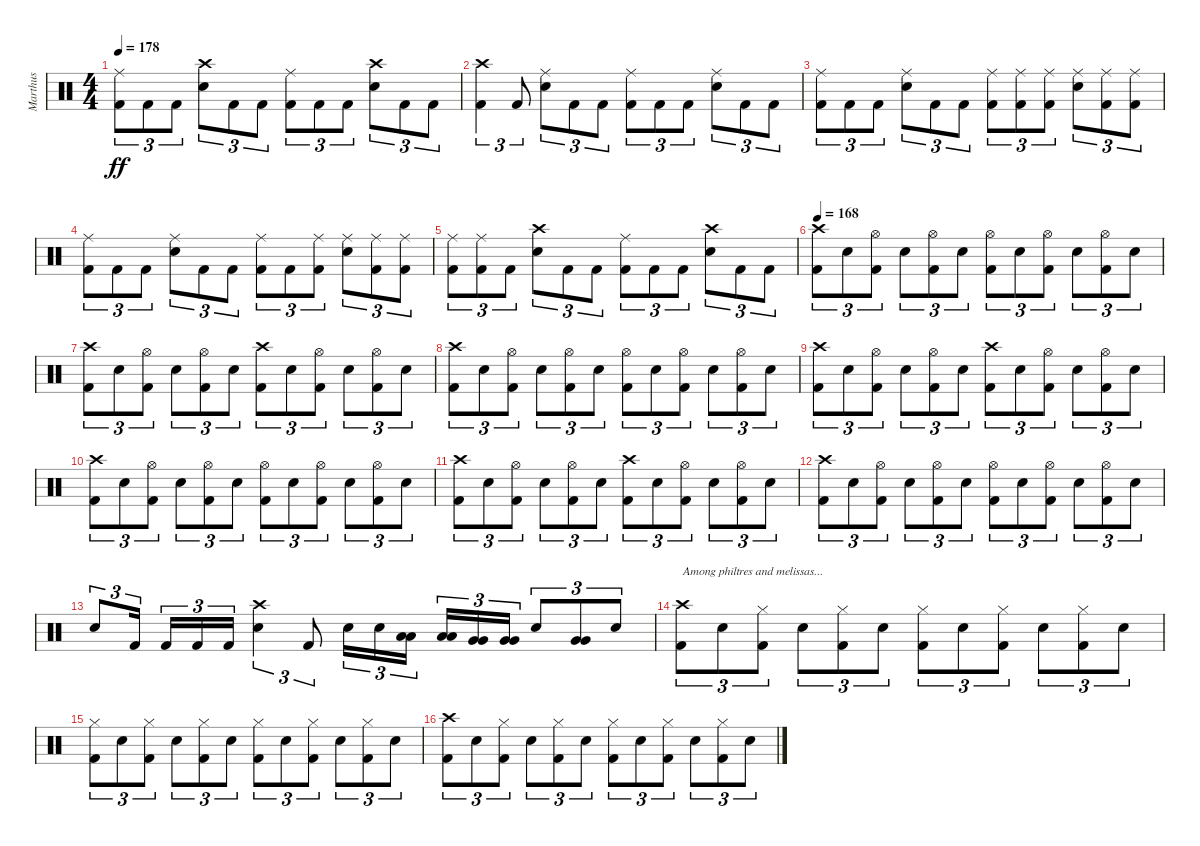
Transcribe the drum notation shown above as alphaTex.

\track ("Marthus" "Marthus") {instrument percussion}
\staff {score}
\articulation defaults
\ts (4 4)
\tempo 178
\clef neutral
\ks c
("Ride (middle)" "Kick (hit) 2").8{tu (3 2) dy ff} "Kick (hit) 2".8{tu (3 2)} "Kick (hit) 2".8{tu (3 2)} ("Crash high (hit)" "Electric Snare (hit)").8{tu (3 2)} "Kick (hit) 2".8{tu (3 2)} "Kick (hit) 2".8{tu (3 2)} ("Ride (middle)" "Kick (hit) 2").8{tu (3 2)} "Kick (hit) 2".8{tu (3 2)} "Kick (hit) 2".8{tu (3 2)} ("Crash high (hit)" "Electric Snare (hit)").8{tu (3 2)} "Kick (hit) 2".8{tu (3 2)} "Kick (hit) 2".8{tu (3 2)} |
("Crash high (hit)" "Kick (hit) 2").4{tu (3 2)} "Kick (hit) 2".8{tu (3 2)} ("Ride (middle)" "Electric Snare (hit)").8{tu (3 2)} "Kick (hit) 2".8{tu (3 2)} "Kick (hit) 2".8{tu (3 2)} ("Ride (middle)" "Kick (hit) 2").8{tu (3 2)} "Kick (hit) 2".8{tu (3 2)} "Kick (hit) 2".8{tu (3 2)} ("Ride (middle)" "Electric Snare (hit)").8{tu (3 2)} "Kick (hit) 2".8{tu (3 2)} "Kick (hit) 2".8{tu (3 2)} |
("Ride (middle)" "Kick (hit) 2").8{tu (3 2)} "Kick (hit) 2".8{tu (3 2)} "Kick (hit) 2".8{tu (3 2)} ("Ride (middle)" "Electric Snare (hit)").8{tu (3 2)} "Kick (hit) 2".8{tu (3 2)} "Kick (hit) 2".8{tu (3 2)} ("Ride (middle)" "Kick (hit) 2").8{tu (3 2)} ("Ride (middle)" "Kick (hit) 2").8{tu (3 2)} ("Ride (middle)" "Kick (hit) 2").8{tu (3 2)} ("Ride (middle)" "Electric Snare (hit)").8{tu (3 2)} ("Ride (middle)" "Kick (hit) 2").8{tu (3 2)} ("Ride (middle)" "Kick (hit) 2").8{tu (3 2)} |
("Ride (middle)" "Kick (hit) 2").8{tu (3 2)} "Kick (hit) 2".8{tu (3 2)} "Kick (hit) 2".8{tu (3 2)} ("Ride (middle)" "Electric Snare (hit)").8{tu (3 2)} "Kick (hit) 2".8{tu (3 2)} "Kick (hit) 2".8{tu (3 2)} ("Ride (middle)" "Kick (hit) 2").8{tu (3 2)} "Kick (hit) 2".8{tu (3 2)} ("Ride (middle)" "Kick (hit) 2").8{tu (3 2)} ("Ride (middle)" "Electric Snare (hit)").8{tu (3 2)} ("Ride (middle)" "Kick (hit) 2").8{tu (3 2)} ("Ride (middle)" "Kick (hit) 2").8{tu (3 2)} |
("Ride (middle)" "Kick (hit) 2").8{tu (3 2)} ("Ride (middle)" "Kick (hit) 2").8{tu (3 2)} "Kick (hit) 2".8{tu (3 2)} ("Crash high (hit)" "Electric Snare (hit)").8{tu (3 2)} "Kick (hit) 2".8{tu (3 2)} "Kick (hit) 2".8{tu (3 2)} ("Ride (middle)" "Kick (hit) 2").8{tu (3 2)} "Kick (hit) 2".8{tu (3 2)} "Kick (hit) 2".8{tu (3 2)} ("Crash high (hit)" "Electric Snare (hit)").8{tu (3 2)} "Kick (hit) 2".8{tu (3 2)} "Kick (hit) 2".8{tu (3 2)} |
\tempo 168
("Crash high (hit)" "Kick (hit) 2").8{tu (3 2)} "Electric Snare (hit)".8{tu (3 2)} ("Hi-Hat (open)" "Kick (hit) 2").8{tu (3 2)} "Electric Snare (hit)".8{tu (3 2)} ("Hi-Hat (open)" "Kick (hit) 2").8{tu (3 2)} "Electric Snare (hit)".8{tu (3 2)} ("Hi-Hat (open)" "Kick (hit) 2").8{tu (3 2)} "Electric Snare (hit)".8{tu (3 2)} ("Hi-Hat (open)" "Kick (hit) 2").8{tu (3 2)} "Electric Snare (hit)".8{tu (3 2)} ("Hi-Hat (open)" "Kick (hit) 2").8{tu (3 2)} "Electric Snare (hit)".8{tu (3 2)} |
("Crash high (hit)" "Kick (hit) 2").8{tu (3 2)} "Electric Snare (hit)".8{tu (3 2)} ("Hi-Hat (open)" "Kick (hit) 2").8{tu (3 2)} "Electric Snare (hit)".8{tu (3 2)} ("Hi-Hat (open)" "Kick (hit) 2").8{tu (3 2)} "Electric Snare (hit)".8{tu (3 2)} ("Crash high (hit)" "Kick (hit) 2").8{tu (3 2)} "Electric Snare (hit)".8{tu (3 2)} ("Hi-Hat (open)" "Kick (hit) 2").8{tu (3 2)} "Electric Snare (hit)".8{tu (3 2)} ("Hi-Hat (open)" "Kick (hit) 2").8{tu (3 2)} "Electric Snare (hit)".8{tu (3 2)} |
("Crash high (hit)" "Kick (hit) 2").8{tu (3 2)} "Electric Snare (hit)".8{tu (3 2)} ("Hi-Hat (open)" "Kick (hit) 2").8{tu (3 2)} "Electric Snare (hit)".8{tu (3 2)} ("Hi-Hat (open)" "Kick (hit) 2").8{tu (3 2)} "Electric Snare (hit)".8{tu (3 2)} ("Hi-Hat (open)" "Kick (hit) 2").8{tu (3 2)} "Electric Snare (hit)".8{tu (3 2)} ("Hi-Hat (open)" "Kick (hit) 2").8{tu (3 2)} "Electric Snare (hit)".8{tu (3 2)} ("Hi-Hat (open)" "Kick (hit) 2").8{tu (3 2)} "Electric Snare (hit)".8{tu (3 2)} |
("Crash high (hit)" "Kick (hit) 2").8{tu (3 2)} "Electric Snare (hit)".8{tu (3 2)} ("Hi-Hat (open)" "Kick (hit) 2").8{tu (3 2)} "Electric Snare (hit)".8{tu (3 2)} ("Hi-Hat (open)" "Kick (hit) 2").8{tu (3 2)} "Electric Snare (hit)".8{tu (3 2)} ("Crash high (hit)" "Kick (hit) 2").8{tu (3 2)} "Electric Snare (hit)".8{tu (3 2)} ("Hi-Hat (open)" "Kick (hit) 2").8{tu (3 2)} "Electric Snare (hit)".8{tu (3 2)} ("Hi-Hat (open)" "Kick (hit) 2").8{tu (3 2)} "Electric Snare (hit)".8{tu (3 2)} |
("Crash high (hit)" "Kick (hit) 2").8{tu (3 2)} "Electric Snare (hit)".8{tu (3 2)} ("Hi-Hat (open)" "Kick (hit) 2").8{tu (3 2)} "Electric Snare (hit)".8{tu (3 2)} ("Hi-Hat (open)" "Kick (hit) 2").8{tu (3 2)} "Electric Snare (hit)".8{tu (3 2)} ("Hi-Hat (open)" "Kick (hit) 2").8{tu (3 2)} "Electric Snare (hit)".8{tu (3 2)} ("Hi-Hat (open)" "Kick (hit) 2").8{tu (3 2)} "Electric Snare (hit)".8{tu (3 2)} ("Hi-Hat (open)" "Kick (hit) 2").8{tu (3 2)} "Electric Snare (hit)".8{tu (3 2)} |
("Crash high (hit)" "Kick (hit) 2").8{tu (3 2)} "Electric Snare (hit)".8{tu (3 2)} ("Hi-Hat (open)" "Kick (hit) 2").8{tu (3 2)} "Electric Snare (hit)".8{tu (3 2)} ("Hi-Hat (open)" "Kick (hit) 2").8{tu (3 2)} "Electric Snare (hit)".8{tu (3 2)} ("Crash high (hit)" "Kick (hit) 2").8{tu (3 2)} "Electric Snare (hit)".8{tu (3 2)} ("Hi-Hat (open)" "Kick (hit) 2").8{tu (3 2)} "Electric Snare (hit)".8{tu (3 2)} ("Hi-Hat (open)" "Kick (hit) 2").8{tu (3 2)} "Electric Snare (hit)".8{tu (3 2)} |
("Crash high (hit)" "Kick (hit) 2").8{tu (3 2)} "Electric Snare (hit)".8{tu (3 2)} ("Hi-Hat (open)" "Kick (hit) 2").8{tu (3 2)} "Electric Snare (hit)".8{tu (3 2)} ("Hi-Hat (open)" "Kick (hit) 2").8{tu (3 2)} "Electric Snare (hit)".8{tu (3 2)} ("Hi-Hat (open)" "Kick (hit) 2").8{tu (3 2)} "Electric Snare (hit)".8{tu (3 2)} ("Hi-Hat (open)" "Kick (hit) 2").8{tu (3 2)} "Electric Snare (hit)".8{tu (3 2)} ("Hi-Hat (open)" "Kick (hit) 2").8{tu (3 2)} "Electric Snare (hit)".8{tu (3 2)} |
"Electric Snare (hit)".8{tu (3 2)} "Kick (hit) 2".16{tu (3 2) beam splitsecondary} "Kick (hit) 2".16{tu (3 2)} "Kick (hit) 2".16{tu (3 2)} "Kick (hit) 2".16{tu (3 2)} ("Crash high (hit)" "Electric Snare (hit)").4{tu (3 2)} "Kick (hit) 2".8{tu (3 2)} "Electric Snare (hit)".16{tu (3 2)} "Electric Snare (hit)".16{tu (3 2)} ("Low Tom (hit)" "Low Tom (hit)").16{tu (3 2) beam splitsecondary} ("Low Tom (hit)" "Low Tom (hit)").16{tu (3 2)} ("Very Low Tom (hit)" "Very Low Tom (hit)").16{tu (3 2)} ("Very Low Tom (hit)" "Very Low Tom (hit)").16{tu (3 2)} "Electric Snare (hit)".8{tu (3 2)} ("Very Low Tom (hit)" "Very Low Tom (hit)").8{tu (3 2)} "Electric Snare (hit)".8{tu (3 2)} |
("Crash high (hit)" "Kick (hit) 2").8{tu (3 2) txt "Among philtres and melissas..."} "Electric Snare (hit)".8{tu (3 2)} ("Hi-Hat (closed)" "Kick (hit) 2").8{tu (3 2)} "Electric Snare (hit)".8{tu (3 2)} ("Hi-Hat (closed)" "Kick (hit) 2").8{tu (3 2)} "Electric Snare (hit)".8{tu (3 2)} ("Hi-Hat (closed)" "Kick (hit) 2").8{tu (3 2)} "Electric Snare (hit)".8{tu (3 2)} ("Hi-Hat (closed)" "Kick (hit) 2").8{tu (3 2)} "Electric Snare (hit)".8{tu (3 2)} ("Hi-Hat (closed)" "Kick (hit) 2").8{tu (3 2)} "Electric Snare (hit)".8{tu (3 2)} |
("Hi-Hat (closed)" "Kick (hit) 2").8{tu (3 2)} "Electric Snare (hit)".8{tu (3 2)} ("Hi-Hat (closed)" "Kick (hit) 2").8{tu (3 2)} "Electric Snare (hit)".8{tu (3 2)} ("Hi-Hat (closed)" "Kick (hit) 2").8{tu (3 2)} "Electric Snare (hit)".8{tu (3 2)} ("Hi-Hat (closed)" "Kick (hit) 2").8{tu (3 2)} "Electric Snare (hit)".8{tu (3 2)} ("Hi-Hat (closed)" "Kick (hit) 2").8{tu (3 2)} "Electric Snare (hit)".8{tu (3 2)} ("Hi-Hat (closed)" "Kick (hit) 2").8{tu (3 2)} "Electric Snare (hit)".8{tu (3 2)} |
("Crash high (hit)" "Kick (hit) 2").8{tu (3 2)} "Electric Snare (hit)".8{tu (3 2)} ("Hi-Hat (closed)" "Kick (hit) 2").8{tu (3 2)} "Electric Snare (hit)".8{tu (3 2)} ("Hi-Hat (closed)" "Kick (hit) 2").8{tu (3 2)} "Electric Snare (hit)".8{tu (3 2)} ("Hi-Hat (closed)" "Kick (hit) 2").8{tu (3 2)} "Electric Snare (hit)".8{tu (3 2)} ("Hi-Hat (closed)" "Kick (hit) 2").8{tu (3 2)} "Electric Snare (hit)".8{tu (3 2)} ("Hi-Hat (closed)" "Kick (hit) 2").8{tu (3 2)} "Electric Snare (hit)".8{tu (3 2)}
